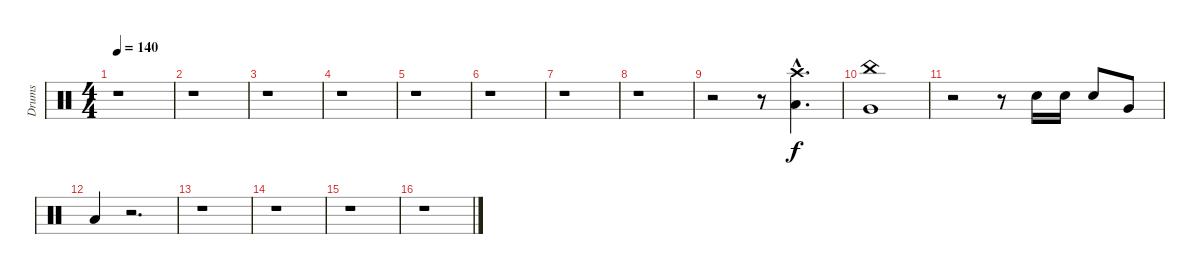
\track ("Drums" "Drums") {instrument percussion}
\staff {score}
\articulation defaults
\ts (4 4)
\tempo 140
\clef neutral
\ks c
r.1{dy f} |
r.1 |
r.1 |
r.1 |
r.1 |
r.1 |
r.1 |
r.1 |
r.2 r.8 ("Crash high (hit)"{hac} "Low Tom (hit)"{hac}).4{d} |
("China (hit)" "Very Low Tom (hit)").1 |
r.2 r.8 "Snare (hit) 2".16 "Snare (hit) 2".16 "Snare (hit) 2".8 "Very Low Tom (hit)".8 |
"Low Floor Tom (hit)".4 r.2{d} |
r.1 |
r.1 |
r.1 |
r.1
